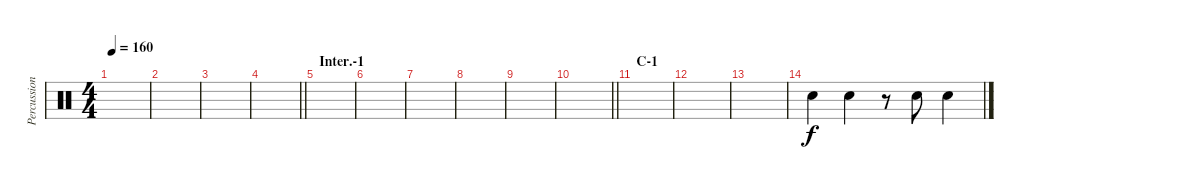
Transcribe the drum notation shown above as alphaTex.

\track ("Percussion A (Tainaka Ritsu)" "Percussion") {instrument percussion}
\staff {score}
\articulation defaults
\ts (4 4)
\tempo 160
\clef neutral
\ks c
|
|
|
\barLineRight lightlight
|
\section ("" "Inter.-1")
|
|
|
|
|
\barLineRight lightlight
|
\section ("" "C-1")
|
|
|
"Hand Clap (hit)".4 "Hand Clap (hit)".4 r.8 "Hand Clap (hit)".8 "Hand Clap (hit)".4
